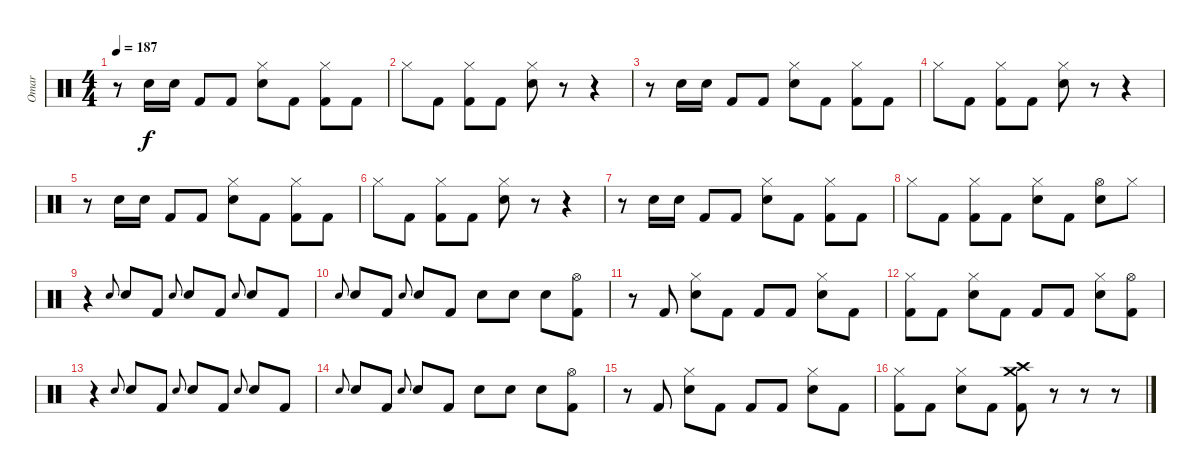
\track ("Omar" "Omar") {instrument percussion}
\staff {score}
\articulation defaults
\ts (4 4)
\tempo 187
\clef neutral
\ks c
r.8{dy f} "Snare (hit) 2".16 "Snare (hit) 2".16 "Kick (hit) 2".8 "Kick (hit) 2".8 ("Hi-Hat (closed)" "Snare (hit) 2").8 "Kick (hit) 2".8 ("Hi-Hat (closed)" "Kick (hit) 2").8 "Kick (hit) 2".8 |
"Hi-Hat (closed)".8 "Kick (hit) 2".8 ("Hi-Hat (closed)" "Kick (hit) 2").8 "Kick (hit) 2".8 ("Hi-Hat (closed)" "Snare (hit) 2").8 r.8 r.4 |
r.8 "Snare (hit) 2".16 "Snare (hit) 2".16 "Kick (hit) 2".8 "Kick (hit) 2".8 ("Hi-Hat (closed)" "Snare (hit) 2").8 "Kick (hit) 2".8 ("Hi-Hat (closed)" "Kick (hit) 2").8 "Kick (hit) 2".8 |
"Hi-Hat (closed)".8 "Kick (hit) 2".8 ("Hi-Hat (closed)" "Kick (hit) 2").8 "Kick (hit) 2".8 ("Hi-Hat (closed)" "Snare (hit) 2").8 r.8 r.4 |
r.8 "Snare (hit) 2".16 "Snare (hit) 2".16 "Kick (hit) 2".8 "Kick (hit) 2".8 ("Hi-Hat (closed)" "Snare (hit) 2").8 "Kick (hit) 2".8 ("Hi-Hat (closed)" "Kick (hit) 2").8 "Kick (hit) 2".8 |
"Hi-Hat (closed)".8 "Kick (hit) 2".8 ("Hi-Hat (closed)" "Kick (hit) 2").8 "Kick (hit) 2".8 ("Hi-Hat (closed)" "Snare (hit) 2").8 r.8 r.4 |
r.8 "Snare (hit) 2".16 "Snare (hit) 2".16 "Kick (hit) 2".8 "Kick (hit) 2".8 ("Hi-Hat (closed)" "Snare (hit) 2").8 "Kick (hit) 2".8 ("Hi-Hat (closed)" "Kick (hit) 2").8 "Kick (hit) 2".8 |
"Hi-Hat (closed)".8 "Kick (hit) 2".8 ("Hi-Hat (closed)" "Kick (hit) 2").8 "Kick (hit) 2".8 ("Hi-Hat (closed)" "Snare (hit) 2").8 "Kick (hit) 2".8 ("Hi-Hat (open)" "Snare (hit) 2").8 "Hi-Hat (closed)".8 |
r.4 "Snare (hit) 2".8{gr onbeat} "Snare (hit) 2".8 "Kick (hit) 2".8 "Snare (hit) 2".8{gr onbeat} "Snare (hit) 2".8 "Kick (hit) 2".8 "Snare (hit) 2".8{gr onbeat} "Snare (hit) 2".8 "Kick (hit) 2".8 |
"Snare (hit) 2".8{gr onbeat} "Snare (hit) 2".8 "Kick (hit) 2".8 "Snare (hit) 2".8{gr onbeat} "Snare (hit) 2".8 "Kick (hit) 2".8 "Snare (hit) 2".8 "Snare (hit) 2".8 "Snare (hit) 2".8 ("Hi-Hat (open)" "Kick (hit) 2").8 |
r.8 "Kick (hit) 2".8 ("Hi-Hat (closed)" "Snare (hit) 2").8 "Kick (hit) 2".8 "Kick (hit) 2".8 "Kick (hit) 2".8 ("Hi-Hat (closed)" "Snare (hit) 2").8 "Kick (hit) 2".8 |
("Hi-Hat (closed)" "Kick (hit) 2").8 "Kick (hit) 2".8 ("Hi-Hat (closed)" "Snare (hit) 2").8 "Kick (hit) 2".8 "Kick (hit) 2".8 "Kick (hit) 2".8 ("Hi-Hat (closed)" "Snare (hit) 2").8 ("Hi-Hat (open)" "Kick (hit) 2").8 |
r.4 "Snare (hit) 2".8{gr onbeat} "Snare (hit) 2".8 "Kick (hit) 2".8 "Snare (hit) 2".8{gr onbeat} "Snare (hit) 2".8 "Kick (hit) 2".8 "Snare (hit) 2".8{gr onbeat} "Snare (hit) 2".8 "Kick (hit) 2".8 |
"Snare (hit) 2".8{gr onbeat} "Snare (hit) 2".8 "Kick (hit) 2".8 "Snare (hit) 2".8{gr onbeat} "Snare (hit) 2".8 "Kick (hit) 2".8 "Snare (hit) 2".8 "Snare (hit) 2".8 "Snare (hit) 2".8 ("Hi-Hat (open)" "Kick (hit) 2").8 |
r.8 "Kick (hit) 2".8 ("Hi-Hat (closed)" "Snare (hit) 2").8 "Kick (hit) 2".8 "Kick (hit) 2".8 "Kick (hit) 2".8 ("Hi-Hat (closed)" "Snare (hit) 2").8 "Kick (hit) 2".8 |
("Hi-Hat (closed)" "Kick (hit) 2").8 "Kick (hit) 2".8 ("Hi-Hat (closed)" "Snare (hit) 2").8 "Kick (hit) 2".8 ("Crash medium (hit)" "Crash high (hit)" "Kick (hit) 2").8 r.8 r.8 r.8
